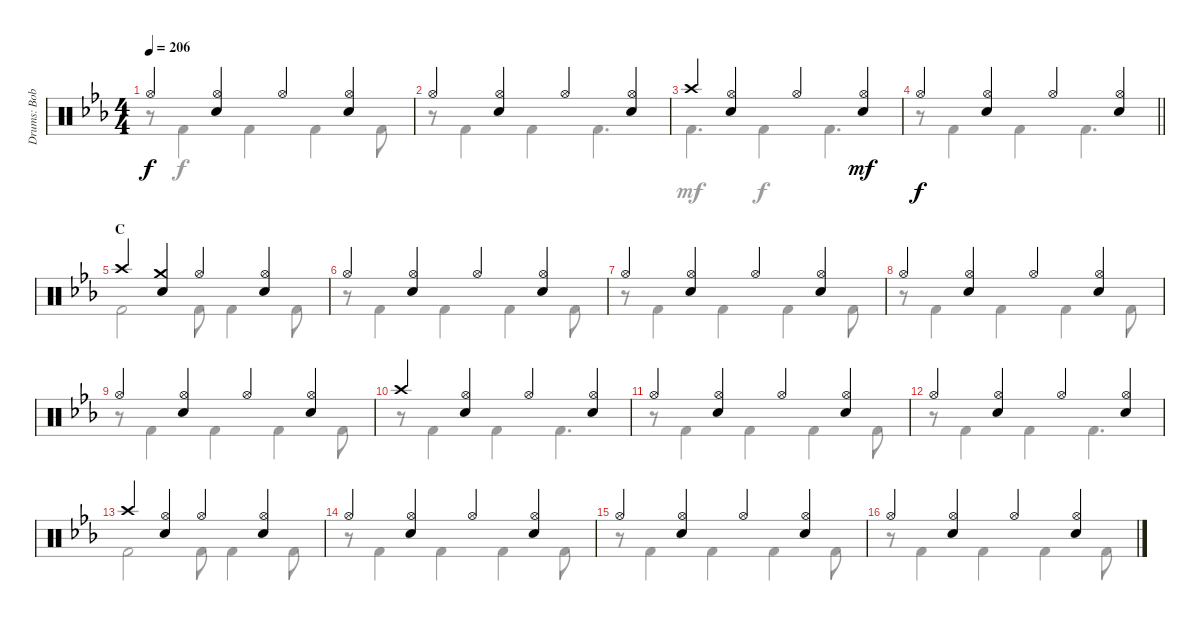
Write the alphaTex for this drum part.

\track ("Drums: Bobby" "Drums: Bob") {instrument percussion}
\staff {score}
\articulation defaults
\voice
\ts (4 4)
\tempo 206
\clef neutral
\ks eb "Hi-Hat (open)".4{dy f}
("Hi-Hat (open)" "Snare (hit) 2").4 "Hi-Hat (open)".4 ("Hi-Hat (open)" "Snare (hit) 2").4 |
"Hi-Hat (open)".4 ("Hi-Hat (open)" "Snare (hit) 2").4 "Hi-Hat (open)".4 ("Hi-Hat (open)" "Snare (hit) 2").4 |
"Crash high (hit)".4 ("Hi-Hat (open)" "Snare (hit) 2").4 "Hi-Hat (open)".4 ("Hi-Hat (open)" "Snare (hit) 2").4{dy mf} |
\barLineRight lightlight "Hi-Hat (open)".4{dy f}
("Hi-Hat (open)" "Snare (hit) 2").4 "Hi-Hat (open)".4 ("Hi-Hat (open)" "Snare (hit) 2").4 |
\section ("" "C")
"Crash high (hit)".4 ("Crash medium (hit)" "Snare (hit) 2").4 "Hi-Hat (open)".4 ("Hi-Hat (open)" "Snare (hit) 2").4 |
"Hi-Hat (open)".4 ("Hi-Hat (open)" "Snare (hit) 2").4 "Hi-Hat (open)".4 ("Hi-Hat (open)" "Snare (hit) 2").4 |
"Hi-Hat (open)".4 ("Hi-Hat (open)" "Snare (hit) 2").4 "Hi-Hat (open)".4 ("Hi-Hat (open)" "Snare (hit) 2").4 |
"Hi-Hat (open)".4 ("Hi-Hat (open)" "Snare (hit) 2").4 "Hi-Hat (open)".4 ("Hi-Hat (open)" "Snare (hit) 2").4 |
"Hi-Hat (open)".4 ("Hi-Hat (open)" "Snare (hit) 2").4 "Hi-Hat (open)".4 ("Hi-Hat (open)" "Snare (hit) 2").4 |
"Crash high (hit)".4 ("Hi-Hat (open)" "Snare (hit) 2").4 "Hi-Hat (open)".4 ("Hi-Hat (open)" "Snare (hit) 2").4 |
"Hi-Hat (open)".4 ("Hi-Hat (open)" "Snare (hit) 2").4 "Hi-Hat (open)".4 ("Hi-Hat (open)" "Snare (hit) 2").4 |
"Hi-Hat (open)".4 ("Hi-Hat (open)" "Snare (hit) 2").4 "Hi-Hat (open)".4 ("Hi-Hat (open)" "Snare (hit) 2").4 |
"Crash high (hit)".4 ("Hi-Hat (open)" "Snare (hit) 2").4 "Hi-Hat (open)".4 ("Hi-Hat (open)" "Snare (hit) 2").4 |
"Hi-Hat (open)".4 ("Hi-Hat (open)" "Snare (hit) 2").4 "Hi-Hat (open)".4 ("Hi-Hat (open)" "Snare (hit) 2").4 |
"Hi-Hat (open)".4 ("Hi-Hat (open)" "Snare (hit) 2").4 "Hi-Hat (open)".4 ("Hi-Hat (open)" "Snare (hit) 2").4 |
"Hi-Hat (open)".4 ("Hi-Hat (open)" "Snare (hit) 2").4 "Hi-Hat (open)".4 ("Hi-Hat (open)" "Snare (hit) 2").4
\voice
\clef neutral
\ottava regular
\simile none
\ks eb
r.8{dy f} "Kick (hit) 2".4 "Kick (hit) 2".4 "Kick (hit) 2".4 "Kick (hit) 2".8 |
r.8 "Kick (hit) 2".4 "Kick (hit) 2".4 "Kick (hit) 2".4{d} |
"Kick (hit) 2".4{d dy mf} "Kick (hit) 2".4{dy f} "Kick (hit) 2".4{d} |
\barLineRight lightlight
r.8 "Kick (hit) 2".4 "Kick (hit) 2".4 "Kick (hit) 2".4{d} |
"Kick (hit) 2".2 "Kick (hit) 2".8 "Kick (hit) 2".4 "Kick (hit) 2".8 |
r.8 "Kick (hit) 2".4 "Kick (hit) 2".4 "Kick (hit) 2".4 "Kick (hit) 2".8 |
r.8 "Kick (hit) 2".4 "Kick (hit) 2".4 "Kick (hit) 2".4 "Kick (hit) 2".8 |
r.8 "Kick (hit) 2".4 "Kick (hit) 2".4 "Kick (hit) 2".4 "Kick (hit) 2".8 |
r.8 "Kick (hit) 2".4 "Kick (hit) 2".4 "Kick (hit) 2".4 "Kick (hit) 2".8 |
r.8 "Kick (hit) 2".4 "Kick (hit) 2".4 "Kick (hit) 2".4{d} |
r.8 "Kick (hit) 2".4 "Kick (hit) 2".4 "Kick (hit) 2".4 "Kick (hit) 2".8 |
r.8 "Kick (hit) 2".4 "Kick (hit) 2".4 "Kick (hit) 2".4{d} |
"Kick (hit) 2".2 "Kick (hit) 2".8 "Kick (hit) 2".4 "Kick (hit) 2".8 |
r.8 "Kick (hit) 2".4 "Kick (hit) 2".4 "Kick (hit) 2".4 "Kick (hit) 2".8 |
r.8 "Kick (hit) 2".4 "Kick (hit) 2".4 "Kick (hit) 2".4 "Kick (hit) 2".8 |
r.8 "Kick (hit) 2".4 "Kick (hit) 2".4 "Kick (hit) 2".4 "Kick (hit) 2".8
